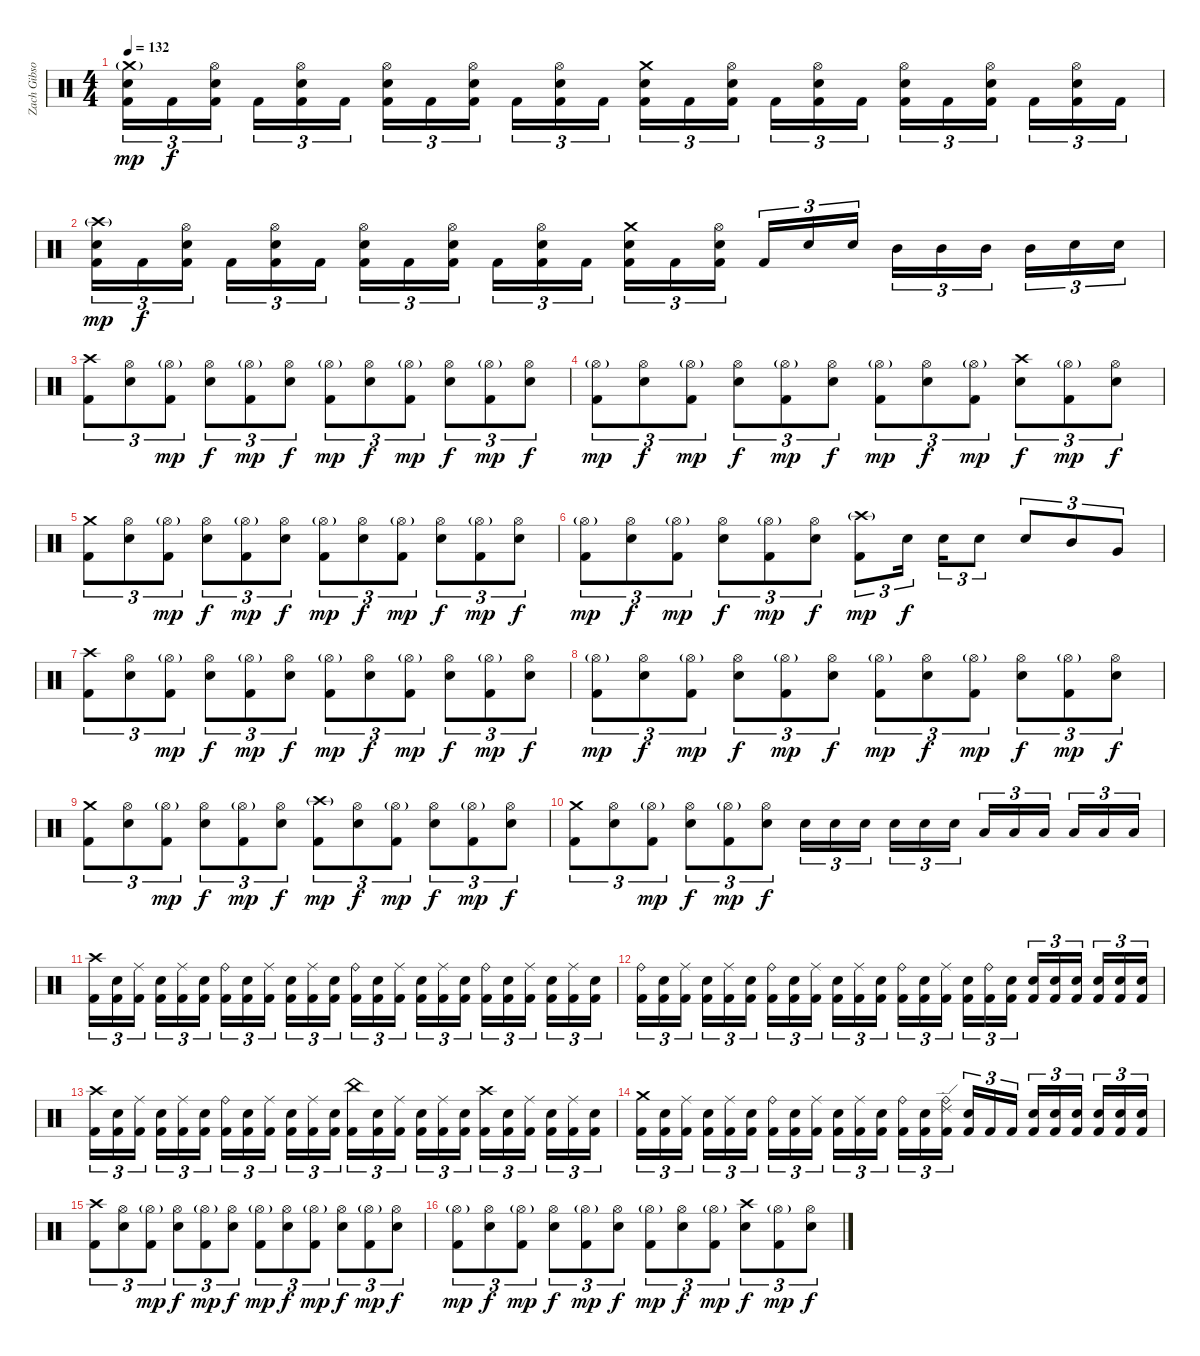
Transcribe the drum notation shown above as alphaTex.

\track ("Zach Gibson (Drums)" "Zach Gibso") {instrument percussion}
\staff {score}
\articulation defaults
\ts (4 4)
\tempo 132
\clef neutral
\ks c
("Crash medium (hit)"{g} "Snare (hit) 2" "Kick (hit) 2").16{tu (3 2) dy mp} "Kick (hit) 2".16{tu (3 2) dy f} ("Hi-Hat (open)" "Snare (hit) 2" "Kick (hit) 2").16{tu (3 2)} "Kick (hit) 2".16{tu (3 2)} ("Hi-Hat (open)" "Snare (hit) 2" "Kick (hit) 2").16{tu (3 2)} "Kick (hit) 2".16{tu (3 2)} ("Hi-Hat (open)" "Snare (hit) 2" "Kick (hit) 2").16{tu (3 2)} "Kick (hit) 2".16{tu (3 2)} ("Hi-Hat (open)" "Snare (hit) 2" "Kick (hit) 2").16{tu (3 2)} "Kick (hit) 2".16{tu (3 2)} ("Hi-Hat (open)" "Snare (hit) 2" "Kick (hit) 2").16{tu (3 2)} "Kick (hit) 2".16{tu (3 2)} ("Crash medium (hit)" "Snare (hit) 2" "Kick (hit) 2").16{tu (3 2)} "Kick (hit) 2".16{tu (3 2)} ("Hi-Hat (open)" "Snare (hit) 2" "Kick (hit) 2").16{tu (3 2)} "Kick (hit) 2".16{tu (3 2)} ("Hi-Hat (open)" "Snare (hit) 2" "Kick (hit) 2").16{tu (3 2)} "Kick (hit) 2".16{tu (3 2)} ("Hi-Hat (open)" "Snare (hit) 2" "Kick (hit) 2").16{tu (3 2)} "Kick (hit) 2".16{tu (3 2)} ("Hi-Hat (open)" "Snare (hit) 2" "Kick (hit) 2").16{tu (3 2)} "Kick (hit) 2".16{tu (3 2)} ("Hi-Hat (open)" "Snare (hit) 2" "Kick (hit) 2").16{tu (3 2)} "Kick (hit) 2".16{tu (3 2)} |
("Crash high (hit)"{g} "Snare (hit) 2" "Kick (hit) 2").16{tu (3 2) dy mp} "Kick (hit) 2".16{tu (3 2) dy f} ("Hi-Hat (open)" "Snare (hit) 2" "Kick (hit) 2").16{tu (3 2)} "Kick (hit) 2".16{tu (3 2)} ("Hi-Hat (open)" "Snare (hit) 2" "Kick (hit) 2").16{tu (3 2)} "Kick (hit) 2".16{tu (3 2)} ("Hi-Hat (open)" "Snare (hit) 2" "Kick (hit) 2").16{tu (3 2)} "Kick (hit) 2".16{tu (3 2)} ("Hi-Hat (open)" "Snare (hit) 2" "Kick (hit) 2").16{tu (3 2)} "Kick (hit) 2".16{tu (3 2)} ("Hi-Hat (open)" "Snare (hit) 2" "Kick (hit) 2").16{tu (3 2)} "Kick (hit) 2".16{tu (3 2)} ("Crash medium (hit)" "Snare (hit) 2" "Kick (hit) 2").16{tu (3 2)} "Kick (hit) 2".16{tu (3 2)} ("Hi-Hat (open)" "Snare (hit) 2" "Kick (hit) 2").16{tu (3 2)} "Kick (hit) 2".16{tu (3 2)} "Snare (hit) 2".16{tu (3 2)} "Snare (hit) 2".16{tu (3 2)} "Mid Tom (hit)".16{tu (3 2)} "Mid Tom (hit)".16{tu (3 2)} "Mid Tom (hit)".16{tu (3 2)} "Mid Tom (hit)".16{tu (3 2)} "Snare (hit) 2".16{tu (3 2)} "Snare (hit) 2".16{tu (3 2)} |
("Crash high (hit)" "Kick (hit) 2").8{tu (3 2)} ("Hi-Hat (open)" "Snare (hit) 2").8{tu (3 2)} ("Hi-Hat (open)"{g} "Kick (hit) 2").8{tu (3 2) dy mp} ("Hi-Hat (open)" "Snare (hit) 2").8{tu (3 2) dy f} ("Hi-Hat (open)"{g} "Kick (hit) 2").8{tu (3 2) dy mp} ("Hi-Hat (open)" "Snare (hit) 2").8{tu (3 2) dy f} ("Hi-Hat (open)"{g} "Kick (hit) 2").8{tu (3 2) dy mp} ("Hi-Hat (open)" "Snare (hit) 2").8{tu (3 2) dy f} ("Hi-Hat (open)"{g} "Kick (hit) 2").8{tu (3 2) dy mp} ("Hi-Hat (open)" "Snare (hit) 2").8{tu (3 2) dy f} ("Hi-Hat (open)"{g} "Kick (hit) 2").8{tu (3 2) dy mp} ("Hi-Hat (open)" "Snare (hit) 2").8{tu (3 2) dy f} |
("Hi-Hat (open)"{g} "Kick (hit) 2").8{tu (3 2) dy mp} ("Hi-Hat (open)" "Snare (hit) 2").8{tu (3 2) dy f} ("Hi-Hat (open)"{g} "Kick (hit) 2").8{tu (3 2) dy mp} ("Hi-Hat (open)" "Snare (hit) 2").8{tu (3 2) dy f} ("Hi-Hat (open)"{g} "Kick (hit) 2").8{tu (3 2) dy mp} ("Hi-Hat (open)" "Snare (hit) 2").8{tu (3 2) dy f} ("Hi-Hat (open)"{g} "Kick (hit) 2").8{tu (3 2) dy mp} ("Hi-Hat (open)" "Snare (hit) 2").8{tu (3 2) dy f} ("Hi-Hat (open)"{g} "Kick (hit) 2").8{tu (3 2) dy mp} ("Crash high (hit)" "Snare (hit) 2").8{tu (3 2) dy f} ("Hi-Hat (open)"{g} "Kick (hit) 2").8{tu (3 2) dy mp} ("Hi-Hat (open)" "Snare (hit) 2").8{tu (3 2) dy f} |
("Crash medium (hit)" "Kick (hit) 2").8{tu (3 2)} ("Hi-Hat (open)" "Snare (hit) 2").8{tu (3 2)} ("Hi-Hat (open)"{g} "Kick (hit) 2").8{tu (3 2) dy mp} ("Hi-Hat (open)" "Snare (hit) 2").8{tu (3 2) dy f} ("Hi-Hat (open)"{g} "Kick (hit) 2").8{tu (3 2) dy mp} ("Hi-Hat (open)" "Snare (hit) 2").8{tu (3 2) dy f} ("Hi-Hat (open)"{g} "Kick (hit) 2").8{tu (3 2) dy mp} ("Hi-Hat (open)" "Snare (hit) 2").8{tu (3 2) dy f} ("Hi-Hat (open)"{g} "Kick (hit) 2").8{tu (3 2) dy mp} ("Hi-Hat (open)" "Snare (hit) 2").8{tu (3 2) dy f} ("Hi-Hat (open)"{g} "Kick (hit) 2").8{tu (3 2) dy mp} ("Hi-Hat (open)" "Snare (hit) 2").8{tu (3 2) dy f} |
("Hi-Hat (open)"{g} "Kick (hit) 2").8{tu (3 2) dy mp} ("Hi-Hat (open)" "Snare (hit) 2").8{tu (3 2) dy f} ("Hi-Hat (open)"{g} "Kick (hit) 2").8{tu (3 2) dy mp} ("Hi-Hat (open)" "Snare (hit) 2").8{tu (3 2) dy f} ("Hi-Hat (open)"{g} "Kick (hit) 2").8{tu (3 2) dy mp} ("Hi-Hat (open)" "Snare (hit) 2").8{tu (3 2) dy f} ("Crash high (hit)"{g} "Kick (hit) 2").8{tu (3 2) dy mp} "Snare (hit) 2".16{tu (3 2) dy f} "Snare (hit) 2".16{tu (3 2)} "Snare (hit) 2".8{tu (3 2)} "Snare (hit) 2".8{tu (3 2)} "Mid Tom (hit)".8{tu (3 2)} "Very Low Tom (hit)".8{tu (3 2)} |
("Crash high (hit)" "Kick (hit) 2").8{tu (3 2)} ("Hi-Hat (open)" "Snare (hit) 2").8{tu (3 2)} ("Hi-Hat (open)"{g} "Kick (hit) 2").8{tu (3 2) dy mp} ("Hi-Hat (open)" "Snare (hit) 2").8{tu (3 2) dy f} ("Hi-Hat (open)"{g} "Kick (hit) 2").8{tu (3 2) dy mp} ("Hi-Hat (open)" "Snare (hit) 2").8{tu (3 2) dy f} ("Hi-Hat (open)"{g} "Kick (hit) 2").8{tu (3 2) dy mp} ("Hi-Hat (open)" "Snare (hit) 2").8{tu (3 2) dy f} ("Hi-Hat (open)"{g} "Kick (hit) 2").8{tu (3 2) dy mp} ("Hi-Hat (open)" "Snare (hit) 2").8{tu (3 2) dy f} ("Hi-Hat (open)"{g} "Kick (hit) 2").8{tu (3 2) dy mp} ("Hi-Hat (open)" "Snare (hit) 2").8{tu (3 2) dy f} |
("Hi-Hat (open)"{g} "Kick (hit) 2").8{tu (3 2) dy mp} ("Hi-Hat (open)" "Snare (hit) 2").8{tu (3 2) dy f} ("Hi-Hat (open)"{g} "Kick (hit) 2").8{tu (3 2) dy mp} ("Hi-Hat (open)" "Snare (hit) 2").8{tu (3 2) dy f} ("Hi-Hat (open)"{g} "Kick (hit) 2").8{tu (3 2) dy mp} ("Hi-Hat (open)" "Snare (hit) 2").8{tu (3 2) dy f} ("Hi-Hat (open)"{g} "Kick (hit) 2").8{tu (3 2) dy mp} ("Hi-Hat (open)" "Snare (hit) 2").8{tu (3 2) dy f} ("Hi-Hat (open)"{g} "Kick (hit) 2").8{tu (3 2) dy mp} ("Hi-Hat (open)" "Snare (hit) 2").8{tu (3 2) dy f} ("Hi-Hat (open)"{g} "Kick (hit) 2").8{tu (3 2) dy mp} ("Hi-Hat (open)" "Snare (hit) 2").8{tu (3 2) dy f} |
("Crash medium (hit)" "Kick (hit) 2").8{tu (3 2)} ("Hi-Hat (open)" "Snare (hit) 2").8{tu (3 2)} ("Hi-Hat (open)"{g} "Kick (hit) 2").8{tu (3 2) dy mp} ("Hi-Hat (open)" "Snare (hit) 2").8{tu (3 2) dy f} ("Hi-Hat (open)"{g} "Kick (hit) 2").8{tu (3 2) dy mp} ("Hi-Hat (open)" "Snare (hit) 2").8{tu (3 2) dy f} ("Crash high (hit)"{g} "Kick (hit) 2").8{tu (3 2) dy mp} ("Hi-Hat (open)" "Snare (hit) 2").8{tu (3 2) dy f} ("Hi-Hat (open)"{g} "Kick (hit) 2").8{tu (3 2) dy mp} ("Hi-Hat (open)" "Snare (hit) 2").8{tu (3 2) dy f} ("Hi-Hat (open)"{g} "Kick (hit) 2").8{tu (3 2) dy mp} ("Hi-Hat (open)" "Snare (hit) 2").8{tu (3 2) dy f} |
("Crash medium (hit)" "Kick (hit) 2").8{tu (3 2)} ("Hi-Hat (open)" "Snare (hit) 2").8{tu (3 2)} ("Hi-Hat (open)"{g} "Kick (hit) 2").8{tu (3 2) dy mp} ("Hi-Hat (open)" "Snare (hit) 2").8{tu (3 2) dy f} ("Hi-Hat (open)"{g} "Kick (hit) 2").8{tu (3 2) dy mp} ("Hi-Hat (open)" "Snare (hit) 2").8{tu (3 2) dy f} "Snare (hit) 2".16{tu (3 2)} "Snare (hit) 2".16{tu (3 2)} "Snare (hit) 2".16{tu (3 2)} "Snare (hit) 2".16{tu (3 2)} "Snare (hit) 2".16{tu (3 2)} "Snare (hit) 2".16{tu (3 2)} "Low Tom (hit)".16{tu (3 2)} "Low Tom (hit)".16{tu (3 2)} "Low Tom (hit)".16{tu (3 2)} "Low Tom (hit)".16{tu (3 2)} "Low Tom (hit)".16{tu (3 2)} "Low Tom (hit)".16{tu (3 2)} |
("Crash high (hit)" "Kick (hit) 2").16{tu (3 2)} ("Kick (hit) 2" "Snare (hit) 2").16{tu (3 2)} ("Ride (middle)" "Kick (hit) 2").16{tu (3 2)} ("Kick (hit) 2" "Snare (hit) 2").16{tu (3 2)} ("Ride (middle)" "Kick (hit) 2").16{tu (3 2)} ("Kick (hit) 2" "Snare (hit) 2").16{tu (3 2)} ("Ride (bell)" "Kick (hit) 2").16{tu (3 2)} ("Kick (hit) 2" "Snare (hit) 2").16{tu (3 2)} ("Ride (middle)" "Kick (hit) 2").16{tu (3 2)} ("Kick (hit) 2" "Snare (hit) 2").16{tu (3 2)} ("Ride (middle)" "Kick (hit) 2").16{tu (3 2)} ("Kick (hit) 2" "Snare (hit) 2").16{tu (3 2)} ("Ride (bell)" "Kick (hit) 2").16{tu (3 2)} ("Kick (hit) 2" "Snare (hit) 2").16{tu (3 2)} ("Ride (middle)" "Kick (hit) 2").16{tu (3 2)} ("Kick (hit) 2" "Snare (hit) 2").16{tu (3 2)} ("Ride (middle)" "Kick (hit) 2").16{tu (3 2)} ("Kick (hit) 2" "Snare (hit) 2").16{tu (3 2)} ("Ride (bell)" "Kick (hit) 2").16{tu (3 2)} ("Kick (hit) 2" "Snare (hit) 2").16{tu (3 2)} ("Ride (middle)" "Kick (hit) 2").16{tu (3 2)} ("Kick (hit) 2" "Snare (hit) 2").16{tu (3 2)} ("Ride (middle)" "Kick (hit) 2").16{tu (3 2)} ("Kick (hit) 2" "Snare (hit) 2").16{tu (3 2)} |
("Ride (bell)" "Kick (hit) 2").16{tu (3 2)} ("Kick (hit) 2" "Snare (hit) 2").16{tu (3 2)} ("Ride (middle)" "Kick (hit) 2").16{tu (3 2)} ("Kick (hit) 2" "Snare (hit) 2").16{tu (3 2)} ("Ride (middle)" "Kick (hit) 2").16{tu (3 2)} ("Kick (hit) 2" "Snare (hit) 2").16{tu (3 2)} ("Ride (bell)" "Kick (hit) 2").16{tu (3 2)} ("Kick (hit) 2" "Snare (hit) 2").16{tu (3 2)} ("Ride (middle)" "Kick (hit) 2").16{tu (3 2)} ("Kick (hit) 2" "Snare (hit) 2").16{tu (3 2)} ("Ride (middle)" "Kick (hit) 2").16{tu (3 2)} ("Kick (hit) 2" "Snare (hit) 2").16{tu (3 2)} ("Ride (bell)" "Kick (hit) 2").16{tu (3 2)} ("Kick (hit) 2" "Snare (hit) 2").16{tu (3 2)} ("Ride (middle)" "Kick (hit) 2").16{tu (3 2)} ("Kick (hit) 2" "Snare (hit) 2").16{tu (3 2)} ("Ride (bell)" "Kick (hit) 2").16{tu (3 2)} ("Kick (hit) 2" "Snare (hit) 2").16{tu (3 2)} ("Snare (hit) 2" "Kick (hit) 2").16{tu (3 2)} ("Snare (hit) 2" "Kick (hit) 2").16{tu (3 2)} ("Snare (hit) 2" "Kick (hit) 2").16{tu (3 2)} ("Snare (hit) 2" "Kick (hit) 2").16{tu (3 2)} ("Snare (hit) 2" "Kick (hit) 2").16{tu (3 2)} ("Snare (hit) 2" "Kick (hit) 2").16{tu (3 2)} |
("Crash high (hit)" "Kick (hit) 2").16{tu (3 2)} ("Kick (hit) 2" "Snare (hit) 2").16{tu (3 2)} ("Ride (middle)" "Kick (hit) 2").16{tu (3 2)} ("Kick (hit) 2" "Snare (hit) 2").16{tu (3 2)} ("Ride (middle)" "Kick (hit) 2").16{tu (3 2)} ("Kick (hit) 2" "Snare (hit) 2").16{tu (3 2)} ("Ride (bell)" "Kick (hit) 2").16{tu (3 2)} ("Kick (hit) 2" "Snare (hit) 2").16{tu (3 2)} ("Ride (middle)" "Kick (hit) 2").16{tu (3 2)} ("Kick (hit) 2" "Snare (hit) 2").16{tu (3 2)} ("Ride (middle)" "Kick (hit) 2").16{tu (3 2)} ("Kick (hit) 2" "Snare (hit) 2").16{tu (3 2)} ("China (hit)" "Kick (hit) 2").16{tu (3 2)} ("Kick (hit) 2" "Snare (hit) 2").16{tu (3 2)} ("Ride (middle)" "Kick (hit) 2").16{tu (3 2)} ("Kick (hit) 2" "Snare (hit) 2").16{tu (3 2)} ("Ride (middle)" "Kick (hit) 2").16{tu (3 2)} ("Kick (hit) 2" "Snare (hit) 2").16{tu (3 2)} ("Crash high (hit)" "Kick (hit) 2").16{tu (3 2)} ("Kick (hit) 2" "Snare (hit) 2").16{tu (3 2)} ("Ride (middle)" "Kick (hit) 2").16{tu (3 2)} ("Kick (hit) 2" "Snare (hit) 2").16{tu (3 2)} ("Ride (middle)" "Kick (hit) 2").16{tu (3 2)} ("Kick (hit) 2" "Snare (hit) 2").16{tu (3 2)} |
("Crash medium (hit)" "Kick (hit) 2").16{tu (3 2)} ("Kick (hit) 2" "Snare (hit) 2").16{tu (3 2)} ("Ride (middle)" "Kick (hit) 2").16{tu (3 2)} ("Kick (hit) 2" "Snare (hit) 2").16{tu (3 2)} ("Ride (middle)" "Kick (hit) 2").16{tu (3 2)} ("Kick (hit) 2" "Snare (hit) 2").16{tu (3 2)} ("Ride (bell)" "Kick (hit) 2").16{tu (3 2)} ("Kick (hit) 2" "Snare (hit) 2").16{tu (3 2)} ("Ride (middle)" "Kick (hit) 2").16{tu (3 2)} ("Kick (hit) 2" "Snare (hit) 2").16{tu (3 2)} ("Ride (middle)" "Kick (hit) 2").16{tu (3 2)} ("Kick (hit) 2" "Snare (hit) 2").16{tu (3 2)} ("Ride (bell)" "Kick (hit) 2").16{tu (3 2)} ("Kick (hit) 2" "Snare (hit) 2").16{tu (3 2)} ("Ride (edge) 2" "Ride (bell)" "Kick (hit) 2").16{tu (3 2)} ("Kick (hit) 2" "Snare (hit) 2").16{tu (3 2)} "Kick (hit) 2".16{tu (3 2)} "Kick (hit) 2".16{tu (3 2)} ("Snare (hit) 2" "Kick (hit) 2").16{tu (3 2)} ("Snare (hit) 2" "Kick (hit) 2").16{tu (3 2)} ("Snare (hit) 2" "Kick (hit) 2").16{tu (3 2)} ("Snare (hit) 2" "Kick (hit) 2").16{tu (3 2)} ("Snare (hit) 2" "Kick (hit) 2").16{tu (3 2)} ("Snare (hit) 2" "Kick (hit) 2").16{tu (3 2)} |
("Crash high (hit)" "Kick (hit) 2").8{tu (3 2)} ("Hi-Hat (open)" "Snare (hit) 2").8{tu (3 2)} ("Hi-Hat (open)"{g} "Kick (hit) 2").8{tu (3 2) dy mp} ("Hi-Hat (open)" "Snare (hit) 2").8{tu (3 2) dy f} ("Hi-Hat (open)"{g} "Kick (hit) 2").8{tu (3 2) dy mp} ("Hi-Hat (open)" "Snare (hit) 2").8{tu (3 2) dy f} ("Hi-Hat (open)"{g} "Kick (hit) 2").8{tu (3 2) dy mp} ("Hi-Hat (open)" "Snare (hit) 2").8{tu (3 2) dy f} ("Hi-Hat (open)"{g} "Kick (hit) 2").8{tu (3 2) dy mp} ("Hi-Hat (open)" "Snare (hit) 2").8{tu (3 2) dy f} ("Hi-Hat (open)"{g} "Kick (hit) 2").8{tu (3 2) dy mp} ("Hi-Hat (open)" "Snare (hit) 2").8{tu (3 2) dy f} |
("Hi-Hat (open)"{g} "Kick (hit) 2").8{tu (3 2) dy mp} ("Hi-Hat (open)" "Snare (hit) 2").8{tu (3 2) dy f} ("Hi-Hat (open)"{g} "Kick (hit) 2").8{tu (3 2) dy mp} ("Hi-Hat (open)" "Snare (hit) 2").8{tu (3 2) dy f} ("Hi-Hat (open)"{g} "Kick (hit) 2").8{tu (3 2) dy mp} ("Hi-Hat (open)" "Snare (hit) 2").8{tu (3 2) dy f} ("Hi-Hat (open)"{g} "Kick (hit) 2").8{tu (3 2) dy mp} ("Hi-Hat (open)" "Snare (hit) 2").8{tu (3 2) dy f} ("Hi-Hat (open)"{g} "Kick (hit) 2").8{tu (3 2) dy mp} ("Crash high (hit)" "Snare (hit) 2").8{tu (3 2) dy f} ("Hi-Hat (open)"{g} "Kick (hit) 2").8{tu (3 2) dy mp} ("Hi-Hat (open)" "Snare (hit) 2").8{tu (3 2) dy f}
